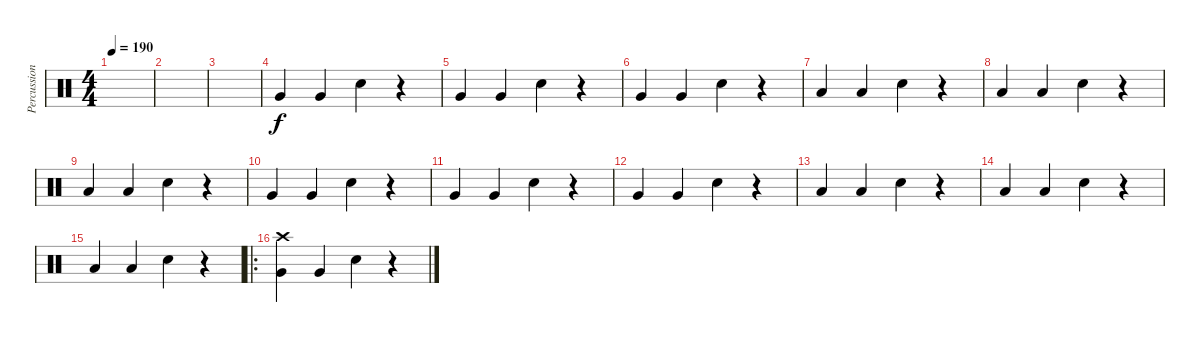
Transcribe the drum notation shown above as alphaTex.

\track ("Percussion" "Percussion") {instrument percussion}
\staff {score}
\articulation defaults
\ts (4 4)
\tempo 190
\clef neutral
\ks c
|
|
|
"Very Low Tom (hit)".4 "Very Low Tom (hit)".4 "Snare (hit) 2".4 r.4 |
"Very Low Tom (hit)".4 "Very Low Tom (hit)".4 "Snare (hit) 2".4 r.4 |
"Very Low Tom (hit)".4 "Very Low Tom (hit)".4 "Snare (hit) 2".4 r.4 |
"Low Floor Tom (hit)".4 "Low Floor Tom (hit)".4 "Snare (hit) 2".4 r.4 |
"Low Floor Tom (hit)".4 "Low Floor Tom (hit)".4 "Snare (hit) 2".4 r.4 |
"Low Floor Tom (hit)".4 "Low Floor Tom (hit)".4 "Snare (hit) 2".4 r.4 |
"Very Low Tom (hit)".4 "Very Low Tom (hit)".4 "Snare (hit) 2".4 r.4 |
"Very Low Tom (hit)".4 "Very Low Tom (hit)".4 "Snare (hit) 2".4 r.4 |
"Very Low Tom (hit)".4 "Very Low Tom (hit)".4 "Snare (hit) 2".4 r.4 |
"Low Floor Tom (hit)".4 "Low Floor Tom (hit)".4 "Snare (hit) 2".4 r.4 |
"Low Floor Tom (hit)".4 "Low Floor Tom (hit)".4 "Snare (hit) 2".4 r.4 |
"Low Floor Tom (hit)".4 "Low Floor Tom (hit)".4 "Snare (hit) 2".4 r.4 |
\ro
("Crash high (hit)" "Very Low Tom (hit)").4 "Very Low Tom (hit)".4 "Snare (hit) 2".4 r.4
